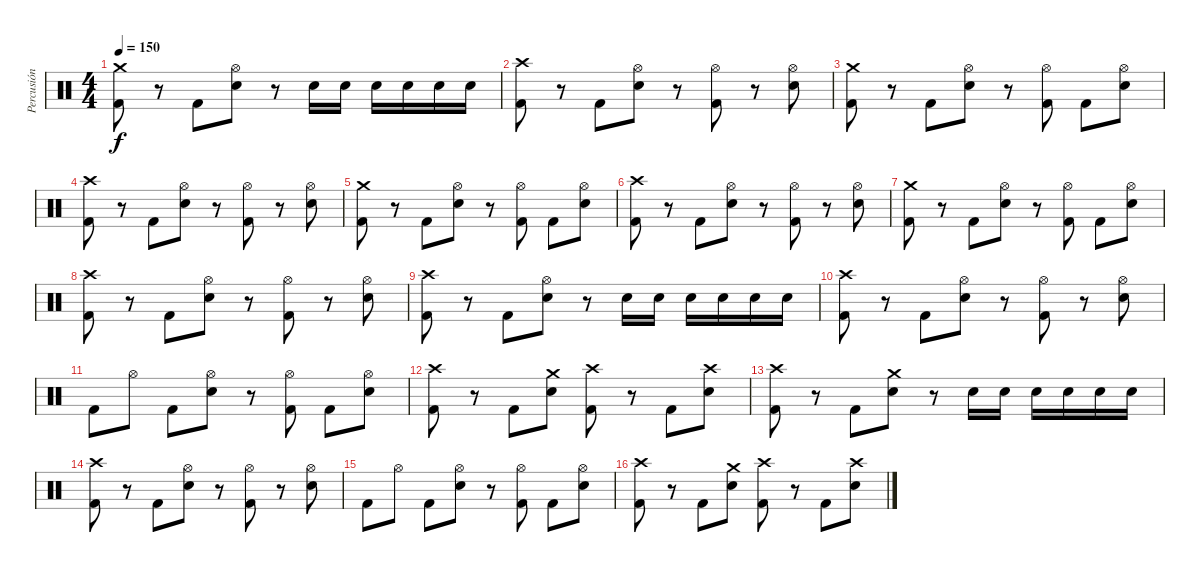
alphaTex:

\track ("Percusión" "Percusión") {instrument percussion}
\staff {score}
\articulation defaults
\ts (4 4)
\tempo 150
\clef neutral
\ks c
("Crash medium (hit)" "Kick (hit) 2").8{dy f} r.8 "Kick (hit) 2".8 ("Hi-Hat (open)" "Electric Snare (hit)").8 r.8 "Electric Snare (hit)".16 "Electric Snare (hit)".16 "Electric Snare (hit)".16 "Electric Snare (hit)".16 "Electric Snare (hit)".16 "Electric Snare (hit)".16 |
("Crash high (hit)" "Kick (hit) 2").8 r.8 "Kick (hit) 2".8 ("Hi-Hat (open)" "Electric Snare (hit)").8 r.8 ("Hi-Hat (open)" "Kick (hit) 2").8 r.8 ("Hi-Hat (open)" "Electric Snare (hit)").8 |
("Crash medium (hit)" "Kick (hit) 2").8 r.8 "Kick (hit) 2".8 ("Hi-Hat (open)" "Electric Snare (hit)").8 r.8 ("Hi-Hat (open)" "Kick (hit) 2").8 "Kick (hit) 2".8 ("Hi-Hat (open)" "Electric Snare (hit)").8 |
("Crash high (hit)" "Kick (hit) 2").8 r.8 "Kick (hit) 2".8 ("Hi-Hat (open)" "Electric Snare (hit)").8 r.8 ("Hi-Hat (open)" "Kick (hit) 2").8 r.8 ("Hi-Hat (open)" "Electric Snare (hit)").8 |
("Crash medium (hit)" "Kick (hit) 2").8 r.8 "Kick (hit) 2".8 ("Hi-Hat (open)" "Electric Snare (hit)").8 r.8 ("Hi-Hat (open)" "Kick (hit) 2").8 "Kick (hit) 2".8 ("Hi-Hat (open)" "Electric Snare (hit)").8 |
("Crash high (hit)" "Kick (hit) 2").8 r.8 "Kick (hit) 2".8 ("Hi-Hat (open)" "Electric Snare (hit)").8 r.8 ("Hi-Hat (open)" "Kick (hit) 2").8 r.8 ("Hi-Hat (open)" "Electric Snare (hit)").8 |
("Crash medium (hit)" "Kick (hit) 2").8 r.8 "Kick (hit) 2".8 ("Hi-Hat (open)" "Electric Snare (hit)").8 r.8 ("Hi-Hat (open)" "Kick (hit) 2").8 "Kick (hit) 2".8 ("Hi-Hat (open)" "Electric Snare (hit)").8 |
("Crash high (hit)" "Kick (hit) 2").8 r.8 "Kick (hit) 2".8 ("Hi-Hat (open)" "Electric Snare (hit)").8 r.8 ("Hi-Hat (open)" "Kick (hit) 2").8 r.8 ("Hi-Hat (open)" "Electric Snare (hit)").8 |
("Crash high (hit)" "Kick (hit) 2").8 r.8 "Kick (hit) 2".8 ("Hi-Hat (open)" "Electric Snare (hit)").8 r.8 "Electric Snare (hit)".16 "Electric Snare (hit)".16 "Electric Snare (hit)".16 "Electric Snare (hit)".16 "Electric Snare (hit)".16 "Electric Snare (hit)".16 |
("Crash high (hit)" "Kick (hit) 2").8 r.8 "Kick (hit) 2".8 ("Hi-Hat (open)" "Electric Snare (hit)").8 r.8 ("Hi-Hat (open)" "Kick (hit) 2").8 r.8 ("Hi-Hat (open)" "Electric Snare (hit)").8 |
"Kick (hit) 2".8 "Hi-Hat (open)".8 "Kick (hit) 2".8 ("Hi-Hat (open)" "Electric Snare (hit)").8 r.8 ("Hi-Hat (open)" "Kick (hit) 2").8 "Kick (hit) 2".8 ("Hi-Hat (open)" "Electric Snare (hit)").8 |
("Crash high (hit)" "Kick (hit) 2").8 r.8 "Kick (hit) 2".8 ("Crash medium (hit)" "Electric Snare (hit)").8 ("Crash high (hit)" "Kick (hit) 2").8 r.8 "Kick (hit) 2".8 ("Crash high (hit)" "Electric Snare (hit)").8 |
("Crash high (hit)" "Kick (hit) 2").8 r.8 "Kick (hit) 2".8 ("Crash medium (hit)" "Electric Snare (hit)").8 r.8 "Electric Snare (hit)".16 "Electric Snare (hit)".16 "Electric Snare (hit)".16 "Electric Snare (hit)".16 "Electric Snare (hit)".16 "Electric Snare (hit)".16 |
("Crash high (hit)" "Kick (hit) 2").8 r.8 "Kick (hit) 2".8 ("Hi-Hat (open)" "Electric Snare (hit)").8 r.8 ("Hi-Hat (open)" "Kick (hit) 2").8 r.8 ("Hi-Hat (open)" "Electric Snare (hit)").8 |
"Kick (hit) 2".8 "Hi-Hat (open)".8 "Kick (hit) 2".8 ("Hi-Hat (open)" "Electric Snare (hit)").8 r.8 ("Hi-Hat (open)" "Kick (hit) 2").8 "Kick (hit) 2".8 ("Hi-Hat (open)" "Electric Snare (hit)").8 |
("Crash high (hit)" "Kick (hit) 2").8 r.8 "Kick (hit) 2".8 ("Crash medium (hit)" "Electric Snare (hit)").8 ("Crash high (hit)" "Kick (hit) 2").8 r.8 "Kick (hit) 2".8 ("Crash high (hit)" "Electric Snare (hit)").8
